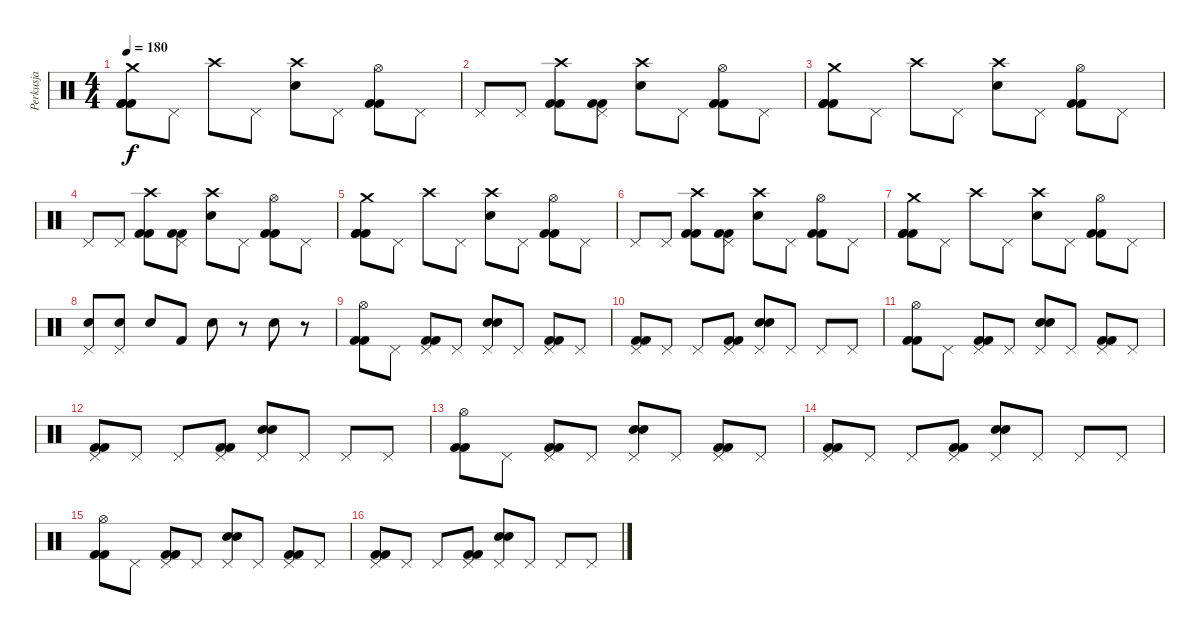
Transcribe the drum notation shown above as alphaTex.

\track ("Perkusja" "Perkusja") {instrument percussion}
\staff {score}
\articulation defaults
\ts (4 4)
\tempo 180
\clef neutral
\ks c
("Crash medium (hit)" "Kick (hit) 2" "Kick (hit) 2" "Kick (hit) 2").8{dy f} "Pedal Hi-Hat (hit)".8 "Crash high (hit)".8 "Pedal Hi-Hat (hit)".8 ("Crash high (hit)" "Snare (hit) 2").8 "Pedal Hi-Hat (hit)".8 ("Hi-Hat (open)" "Kick (hit) 2" "Kick (hit) 2").8 "Pedal Hi-Hat (hit)".8 |
"Pedal Hi-Hat (hit)".8 "Pedal Hi-Hat (hit)".8 ("Crash high (hit)" "Kick (hit) 2" "Kick (hit) 2").8 ("Pedal Hi-Hat (hit)" "Kick (hit) 2" "Kick (hit) 2").8 ("Crash high (hit)" "Snare (hit) 2").8 "Pedal Hi-Hat (hit)".8 ("Hi-Hat (open)" "Kick (hit) 2" "Kick (hit) 2").8 "Pedal Hi-Hat (hit)".8 |
("Crash medium (hit)" "Kick (hit) 2" "Kick (hit) 2" "Kick (hit) 2").8 "Pedal Hi-Hat (hit)".8 "Crash high (hit)".8 "Pedal Hi-Hat (hit)".8 ("Crash high (hit)" "Snare (hit) 2").8 "Pedal Hi-Hat (hit)".8 ("Hi-Hat (open)" "Kick (hit) 2" "Kick (hit) 2").8 "Pedal Hi-Hat (hit)".8 |
"Pedal Hi-Hat (hit)".8 "Pedal Hi-Hat (hit)".8 ("Crash high (hit)" "Kick (hit) 2" "Kick (hit) 2").8 ("Pedal Hi-Hat (hit)" "Kick (hit) 2" "Kick (hit) 2").8 ("Crash high (hit)" "Snare (hit) 2").8 "Pedal Hi-Hat (hit)".8 ("Hi-Hat (open)" "Kick (hit) 2" "Kick (hit) 2").8 "Pedal Hi-Hat (hit)".8 |
("Crash medium (hit)" "Kick (hit) 2" "Kick (hit) 2" "Kick (hit) 2").8 "Pedal Hi-Hat (hit)".8 "Crash high (hit)".8 "Pedal Hi-Hat (hit)".8 ("Crash high (hit)" "Snare (hit) 2").8 "Pedal Hi-Hat (hit)".8 ("Hi-Hat (open)" "Kick (hit) 2" "Kick (hit) 2").8 "Pedal Hi-Hat (hit)".8 |
"Pedal Hi-Hat (hit)".8 "Pedal Hi-Hat (hit)".8 ("Crash high (hit)" "Kick (hit) 2" "Kick (hit) 2").8 ("Pedal Hi-Hat (hit)" "Kick (hit) 2" "Kick (hit) 2").8 ("Crash high (hit)" "Snare (hit) 2").8 "Pedal Hi-Hat (hit)".8 ("Hi-Hat (open)" "Kick (hit) 2" "Kick (hit) 2").8 "Pedal Hi-Hat (hit)".8 |
("Crash medium (hit)" "Kick (hit) 2" "Kick (hit) 2" "Kick (hit) 2").8 "Pedal Hi-Hat (hit)".8 "Crash high (hit)".8 "Pedal Hi-Hat (hit)".8 ("Crash high (hit)" "Snare (hit) 2").8 "Pedal Hi-Hat (hit)".8 ("Hi-Hat (open)" "Kick (hit) 2" "Kick (hit) 2").8 "Pedal Hi-Hat (hit)".8 |
("Pedal Hi-Hat (hit)" "Snare (hit) 2").8 ("Pedal Hi-Hat (hit)" "Snare (hit) 2").8 "Snare (hit) 2".8 "Kick (hit) 2".8 "Snare (hit) 2".8 r.8 "Snare (hit) 2".8 r.8 |
("Hi-Hat (open)" "Kick (hit) 2" "Kick (hit) 2").8 "Pedal Hi-Hat (hit)".8 ("Pedal Hi-Hat (hit)" "Kick (hit) 2" "Kick (hit) 2").8 "Pedal Hi-Hat (hit)".8 ("Pedal Hi-Hat (hit)" "Snare (hit) 2" "Snare (hit) 2").8 "Pedal Hi-Hat (hit)".8 ("Pedal Hi-Hat (hit)" "Kick (hit) 2" "Kick (hit) 2").8 "Pedal Hi-Hat (hit)".8 |
("Pedal Hi-Hat (hit)" "Kick (hit) 2" "Kick (hit) 2").8 "Pedal Hi-Hat (hit)".8 "Pedal Hi-Hat (hit)".8 ("Pedal Hi-Hat (hit)" "Kick (hit) 2" "Kick (hit) 2").8 ("Pedal Hi-Hat (hit)" "Snare (hit) 2" "Snare (hit) 2").8 "Pedal Hi-Hat (hit)".8 "Pedal Hi-Hat (hit)".8 "Pedal Hi-Hat (hit)".8 |
("Hi-Hat (open)" "Kick (hit) 2" "Kick (hit) 2").8 "Pedal Hi-Hat (hit)".8 ("Pedal Hi-Hat (hit)" "Kick (hit) 2" "Kick (hit) 2").8 "Pedal Hi-Hat (hit)".8 ("Pedal Hi-Hat (hit)" "Snare (hit) 2" "Snare (hit) 2").8 "Pedal Hi-Hat (hit)".8 ("Pedal Hi-Hat (hit)" "Kick (hit) 2" "Kick (hit) 2").8 "Pedal Hi-Hat (hit)".8 |
("Pedal Hi-Hat (hit)" "Kick (hit) 2" "Kick (hit) 2").8 "Pedal Hi-Hat (hit)".8 "Pedal Hi-Hat (hit)".8 ("Pedal Hi-Hat (hit)" "Kick (hit) 2" "Kick (hit) 2").8 ("Pedal Hi-Hat (hit)" "Snare (hit) 2" "Snare (hit) 2").8 "Pedal Hi-Hat (hit)".8 "Pedal Hi-Hat (hit)".8 "Pedal Hi-Hat (hit)".8 |
("Hi-Hat (open)" "Kick (hit) 2" "Kick (hit) 2").8 "Pedal Hi-Hat (hit)".8 ("Pedal Hi-Hat (hit)" "Kick (hit) 2" "Kick (hit) 2").8 "Pedal Hi-Hat (hit)".8 ("Pedal Hi-Hat (hit)" "Snare (hit) 2" "Snare (hit) 2").8 "Pedal Hi-Hat (hit)".8 ("Pedal Hi-Hat (hit)" "Kick (hit) 2" "Kick (hit) 2").8 "Pedal Hi-Hat (hit)".8 |
("Pedal Hi-Hat (hit)" "Kick (hit) 2" "Kick (hit) 2").8 "Pedal Hi-Hat (hit)".8 "Pedal Hi-Hat (hit)".8 ("Pedal Hi-Hat (hit)" "Kick (hit) 2" "Kick (hit) 2").8 ("Pedal Hi-Hat (hit)" "Snare (hit) 2" "Snare (hit) 2").8 "Pedal Hi-Hat (hit)".8 "Pedal Hi-Hat (hit)".8 "Pedal Hi-Hat (hit)".8 |
("Hi-Hat (open)" "Kick (hit) 2" "Kick (hit) 2").8 "Pedal Hi-Hat (hit)".8 ("Pedal Hi-Hat (hit)" "Kick (hit) 2" "Kick (hit) 2").8 "Pedal Hi-Hat (hit)".8 ("Pedal Hi-Hat (hit)" "Snare (hit) 2" "Snare (hit) 2").8 "Pedal Hi-Hat (hit)".8 ("Pedal Hi-Hat (hit)" "Kick (hit) 2" "Kick (hit) 2").8 "Pedal Hi-Hat (hit)".8 |
("Pedal Hi-Hat (hit)" "Kick (hit) 2" "Kick (hit) 2").8 "Pedal Hi-Hat (hit)".8 "Pedal Hi-Hat (hit)".8 ("Pedal Hi-Hat (hit)" "Kick (hit) 2" "Kick (hit) 2").8 ("Pedal Hi-Hat (hit)" "Snare (hit) 2" "Snare (hit) 2").8 "Pedal Hi-Hat (hit)".8 "Pedal Hi-Hat (hit)".8 "Pedal Hi-Hat (hit)".8
